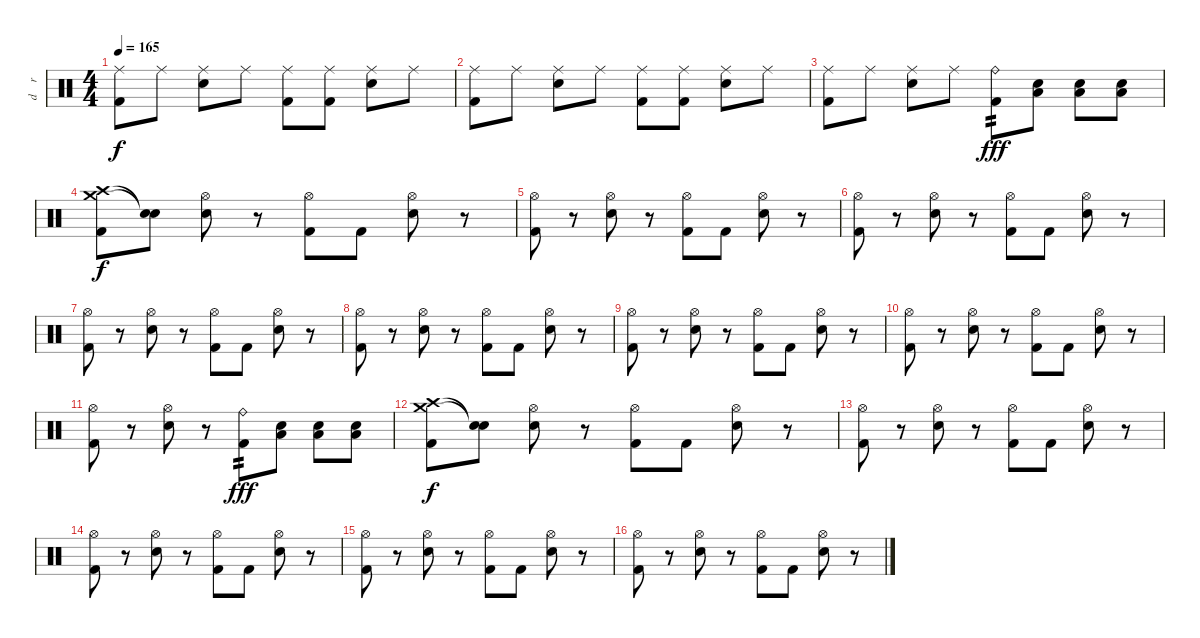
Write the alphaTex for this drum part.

\track ("d    r    u    m    s" "d    r    ") {instrument percussion}
\staff {score}
\articulation defaults
\ts (4 4)
\tempo 165
\clef neutral
\ks c
("Ride (middle)" "Kick (hit) 2").8{dy f} "Ride (middle)".8 ("Ride (middle)" "Electric Snare (hit)").8 "Ride (middle)".8 ("Ride (middle)" "Kick (hit) 2").8 ("Ride (middle)" "Kick (hit) 2").8 ("Ride (middle)" "Electric Snare (hit)").8 "Ride (middle)".8 |
("Ride (middle)" "Kick (hit) 2").8 "Ride (middle)".8 ("Ride (middle)" "Electric Snare (hit)").8 "Ride (middle)".8 ("Ride (middle)" "Kick (hit) 2").8 ("Ride (middle)" "Kick (hit) 2").8 ("Ride (middle)" "Electric Snare (hit)").8 "Ride (middle)".8 |
("Ride (middle)" "Kick (hit) 2").8 "Ride (middle)".8 ("Ride (middle)" "Electric Snare (hit)").8 "Ride (middle)".8 ("Ride (bell)" "Kick (hit) 2").8{tp 2 dy fff} ("Low Floor Tom (hit)" "Electric Snare (hit)").8 ("Low Floor Tom (hit)" "Electric Snare (hit)").8 ("Low Floor Tom (hit)" "Electric Snare (hit)").8 |
("Crash high (hit)" "Crash medium (hit)" "Kick (hit) 2").8{dy f} ("Snare (hit)"{t} "Snare (hit)"{t}).8 ("Hi-Hat (open)" "Electric Snare (hit)").8 r.8 ("Hi-Hat (open)" "Kick (hit) 2").8 "Kick (hit) 2".8 ("Hi-Hat (open)" "Electric Snare (hit)").8 r.8 |
("Hi-Hat (open)" "Kick (hit) 2").8 r.8 ("Hi-Hat (open)" "Electric Snare (hit)").8 r.8 ("Hi-Hat (open)" "Kick (hit) 2").8 "Kick (hit) 2".8 ("Hi-Hat (open)" "Electric Snare (hit)").8 r.8 |
("Hi-Hat (open)" "Kick (hit) 2").8 r.8 ("Hi-Hat (open)" "Electric Snare (hit)").8 r.8 ("Hi-Hat (open)" "Kick (hit) 2").8 "Kick (hit) 2".8 ("Hi-Hat (open)" "Electric Snare (hit)").8 r.8 |
("Hi-Hat (open)" "Kick (hit) 2").8 r.8 ("Hi-Hat (open)" "Electric Snare (hit)").8 r.8 ("Hi-Hat (open)" "Kick (hit) 2").8 "Kick (hit) 2".8 ("Hi-Hat (open)" "Electric Snare (hit)").8 r.8 |
("Hi-Hat (open)" "Kick (hit) 2").8 r.8 ("Hi-Hat (open)" "Electric Snare (hit)").8 r.8 ("Hi-Hat (open)" "Kick (hit) 2").8 "Kick (hit) 2".8 ("Hi-Hat (open)" "Electric Snare (hit)").8 r.8 |
("Hi-Hat (open)" "Kick (hit) 2").8 r.8 ("Hi-Hat (open)" "Electric Snare (hit)").8 r.8 ("Hi-Hat (open)" "Kick (hit) 2").8 "Kick (hit) 2".8 ("Hi-Hat (open)" "Electric Snare (hit)").8 r.8 |
("Hi-Hat (open)" "Kick (hit) 2").8 r.8 ("Hi-Hat (open)" "Electric Snare (hit)").8 r.8 ("Hi-Hat (open)" "Kick (hit) 2").8 "Kick (hit) 2".8 ("Hi-Hat (open)" "Electric Snare (hit)").8 r.8 |
("Hi-Hat (open)" "Kick (hit) 2").8 r.8 ("Hi-Hat (open)" "Electric Snare (hit)").8 r.8 ("Ride (bell)" "Kick (hit) 2").8{tp 2 dy fff} ("Low Floor Tom (hit)" "Electric Snare (hit)").8 ("Low Floor Tom (hit)" "Electric Snare (hit)").8 ("Low Floor Tom (hit)" "Electric Snare (hit)").8 |
("Crash high (hit)" "Crash medium (hit)" "Kick (hit) 2").8{dy f} ("Snare (hit)"{t} "Snare (hit)"{t}).8 ("Hi-Hat (open)" "Electric Snare (hit)").8 r.8 ("Hi-Hat (open)" "Kick (hit) 2").8 "Kick (hit) 2".8 ("Hi-Hat (open)" "Electric Snare (hit)").8 r.8 |
("Hi-Hat (open)" "Kick (hit) 2").8 r.8 ("Hi-Hat (open)" "Electric Snare (hit)").8 r.8 ("Hi-Hat (open)" "Kick (hit) 2").8 "Kick (hit) 2".8 ("Hi-Hat (open)" "Electric Snare (hit)").8 r.8 |
("Hi-Hat (open)" "Kick (hit) 2").8 r.8 ("Hi-Hat (open)" "Electric Snare (hit)").8 r.8 ("Hi-Hat (open)" "Kick (hit) 2").8 "Kick (hit) 2".8 ("Hi-Hat (open)" "Electric Snare (hit)").8 r.8 |
("Hi-Hat (open)" "Kick (hit) 2").8 r.8 ("Hi-Hat (open)" "Electric Snare (hit)").8 r.8 ("Hi-Hat (open)" "Kick (hit) 2").8 "Kick (hit) 2".8 ("Hi-Hat (open)" "Electric Snare (hit)").8 r.8 |
("Hi-Hat (open)" "Kick (hit) 2").8 r.8 ("Hi-Hat (open)" "Electric Snare (hit)").8 r.8 ("Hi-Hat (open)" "Kick (hit) 2").8 "Kick (hit) 2".8 ("Hi-Hat (open)" "Electric Snare (hit)").8 r.8
